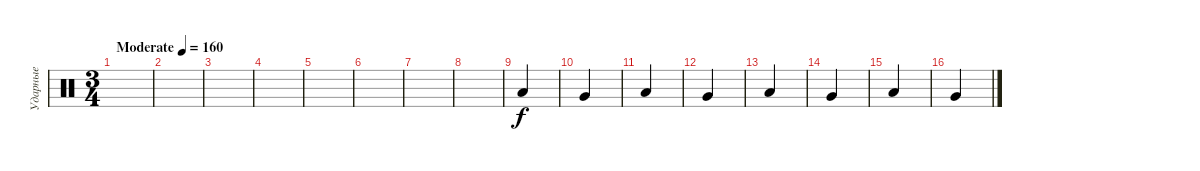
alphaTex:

\track ("Ударные" "Ударные") {instrument percussion}
\staff {score}
\articulation defaults
\ts (3 4)
\tempo (160 "Moderate")
\clef neutral
\ks c
|
|
|
|
|
|
|
|
"Low Floor Tom (hit)".4 |
"Very Low Tom (hit)".4 |
"Low Floor Tom (hit)".4 |
"Very Low Tom (hit)".4 |
"Low Floor Tom (hit)".4 |
"Very Low Tom (hit)".4 |
"Low Floor Tom (hit)".4 |
"Very Low Tom (hit)".4
